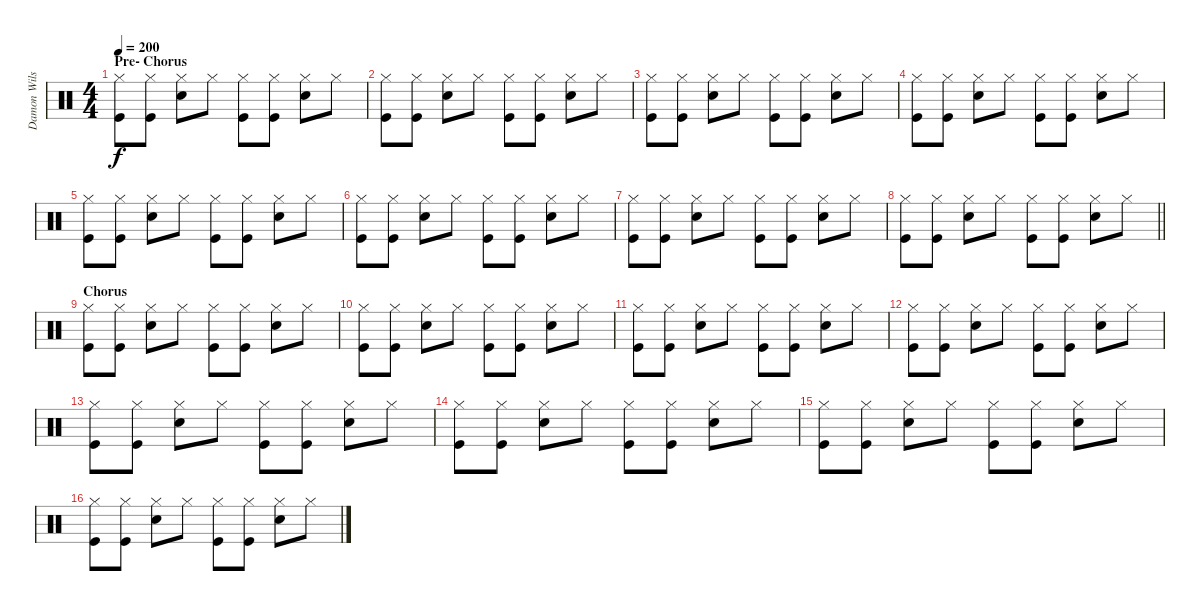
\track ("Damon Wilson" "Damon Wils") {instrument percussion}
\staff {score}
\articulation defaults
\ts (4 4)
\section ("" "Pre- Chorus")
\tempo 200
\clef neutral
\ks c
("Hi-Hat (closed)" "Kick (hit)").8{dy f} ("Hi-Hat (closed)" "Kick (hit)").8 ("Hi-Hat (closed)" "Snare (hit) 2").8 "Hi-Hat (closed)".8 ("Hi-Hat (closed)" "Kick (hit)").8 ("Hi-Hat (closed)" "Kick (hit)").8 ("Hi-Hat (closed)" "Snare (hit) 2").8 "Hi-Hat (closed)".8 |
("Hi-Hat (closed)" "Kick (hit)").8 ("Hi-Hat (closed)" "Kick (hit)").8 ("Hi-Hat (closed)" "Snare (hit) 2").8 "Hi-Hat (closed)".8 ("Hi-Hat (closed)" "Kick (hit)").8 ("Hi-Hat (closed)" "Kick (hit)").8 ("Hi-Hat (closed)" "Snare (hit) 2").8 "Hi-Hat (closed)".8 |
("Hi-Hat (closed)" "Kick (hit)").8 ("Hi-Hat (closed)" "Kick (hit)").8 ("Hi-Hat (closed)" "Snare (hit) 2").8 "Hi-Hat (closed)".8 ("Hi-Hat (closed)" "Kick (hit)").8 ("Hi-Hat (closed)" "Kick (hit)").8 ("Hi-Hat (closed)" "Snare (hit) 2").8 "Hi-Hat (closed)".8 |
("Hi-Hat (closed)" "Kick (hit)").8 ("Hi-Hat (closed)" "Kick (hit)").8 ("Hi-Hat (closed)" "Snare (hit) 2").8 "Hi-Hat (closed)".8 ("Hi-Hat (closed)" "Kick (hit)").8 ("Hi-Hat (closed)" "Kick (hit)").8 ("Hi-Hat (closed)" "Snare (hit) 2").8 "Hi-Hat (closed)".8 |
("Hi-Hat (closed)" "Kick (hit)").8 ("Hi-Hat (closed)" "Kick (hit)").8 ("Hi-Hat (closed)" "Snare (hit) 2").8 "Hi-Hat (closed)".8 ("Hi-Hat (closed)" "Kick (hit)").8 ("Hi-Hat (closed)" "Kick (hit)").8 ("Hi-Hat (closed)" "Snare (hit) 2").8 "Hi-Hat (closed)".8 |
("Hi-Hat (closed)" "Kick (hit)").8 ("Hi-Hat (closed)" "Kick (hit)").8 ("Hi-Hat (closed)" "Snare (hit) 2").8 "Hi-Hat (closed)".8 ("Hi-Hat (closed)" "Kick (hit)").8 ("Hi-Hat (closed)" "Kick (hit)").8 ("Hi-Hat (closed)" "Snare (hit) 2").8 "Hi-Hat (closed)".8 |
("Hi-Hat (closed)" "Kick (hit)").8 ("Hi-Hat (closed)" "Kick (hit)").8 ("Hi-Hat (closed)" "Snare (hit) 2").8 "Hi-Hat (closed)".8 ("Hi-Hat (closed)" "Kick (hit)").8 ("Hi-Hat (closed)" "Kick (hit)").8 ("Hi-Hat (closed)" "Snare (hit) 2").8 "Hi-Hat (closed)".8 |
\barLineRight lightlight
("Hi-Hat (closed)" "Kick (hit)").8 ("Hi-Hat (closed)" "Kick (hit)").8 ("Hi-Hat (closed)" "Snare (hit) 2").8 "Hi-Hat (closed)".8 ("Hi-Hat (closed)" "Kick (hit)").8 ("Hi-Hat (closed)" "Kick (hit)").8 ("Hi-Hat (closed)" "Snare (hit) 2").8 "Hi-Hat (closed)".8 |
\section ("" "Chorus")
("Hi-Hat (closed)" "Kick (hit)").8 ("Hi-Hat (closed)" "Kick (hit)").8 ("Hi-Hat (closed)" "Snare (hit) 2").8 "Hi-Hat (closed)".8 ("Hi-Hat (closed)" "Kick (hit)").8 ("Hi-Hat (closed)" "Kick (hit)").8 ("Hi-Hat (closed)" "Snare (hit) 2").8 "Hi-Hat (closed)".8 |
("Hi-Hat (closed)" "Kick (hit)").8 ("Hi-Hat (closed)" "Kick (hit)").8 ("Hi-Hat (closed)" "Snare (hit) 2").8 "Hi-Hat (closed)".8 ("Hi-Hat (closed)" "Kick (hit)").8 ("Hi-Hat (closed)" "Kick (hit)").8 ("Hi-Hat (closed)" "Snare (hit) 2").8 "Hi-Hat (closed)".8 |
("Hi-Hat (closed)" "Kick (hit)").8 ("Hi-Hat (closed)" "Kick (hit)").8 ("Hi-Hat (closed)" "Snare (hit) 2").8 "Hi-Hat (closed)".8 ("Hi-Hat (closed)" "Kick (hit)").8 ("Hi-Hat (closed)" "Kick (hit)").8 ("Hi-Hat (closed)" "Snare (hit) 2").8 "Hi-Hat (closed)".8 |
("Hi-Hat (closed)" "Kick (hit)").8 ("Hi-Hat (closed)" "Kick (hit)").8 ("Hi-Hat (closed)" "Snare (hit) 2").8 "Hi-Hat (closed)".8 ("Hi-Hat (closed)" "Kick (hit)").8 ("Hi-Hat (closed)" "Kick (hit)").8 ("Hi-Hat (closed)" "Snare (hit) 2").8 "Hi-Hat (closed)".8 |
("Hi-Hat (closed)" "Kick (hit)").8 ("Hi-Hat (closed)" "Kick (hit)").8 ("Hi-Hat (closed)" "Snare (hit) 2").8 "Hi-Hat (closed)".8 ("Hi-Hat (closed)" "Kick (hit)").8 ("Hi-Hat (closed)" "Kick (hit)").8 ("Hi-Hat (closed)" "Snare (hit) 2").8 "Hi-Hat (closed)".8 |
("Hi-Hat (closed)" "Kick (hit)").8 ("Hi-Hat (closed)" "Kick (hit)").8 ("Hi-Hat (closed)" "Snare (hit) 2").8 "Hi-Hat (closed)".8 ("Hi-Hat (closed)" "Kick (hit)").8 ("Hi-Hat (closed)" "Kick (hit)").8 ("Hi-Hat (closed)" "Snare (hit) 2").8 "Hi-Hat (closed)".8 |
("Hi-Hat (closed)" "Kick (hit)").8 ("Hi-Hat (closed)" "Kick (hit)").8 ("Hi-Hat (closed)" "Snare (hit) 2").8 "Hi-Hat (closed)".8 ("Hi-Hat (closed)" "Kick (hit)").8 ("Hi-Hat (closed)" "Kick (hit)").8 ("Hi-Hat (closed)" "Snare (hit) 2").8 "Hi-Hat (closed)".8 |
("Hi-Hat (closed)" "Kick (hit)").8 ("Hi-Hat (closed)" "Kick (hit)").8 ("Hi-Hat (closed)" "Snare (hit) 2").8 "Hi-Hat (closed)".8 ("Hi-Hat (closed)" "Kick (hit)").8 ("Hi-Hat (closed)" "Kick (hit)").8 ("Hi-Hat (closed)" "Snare (hit) 2").8 "Hi-Hat (closed)".8
